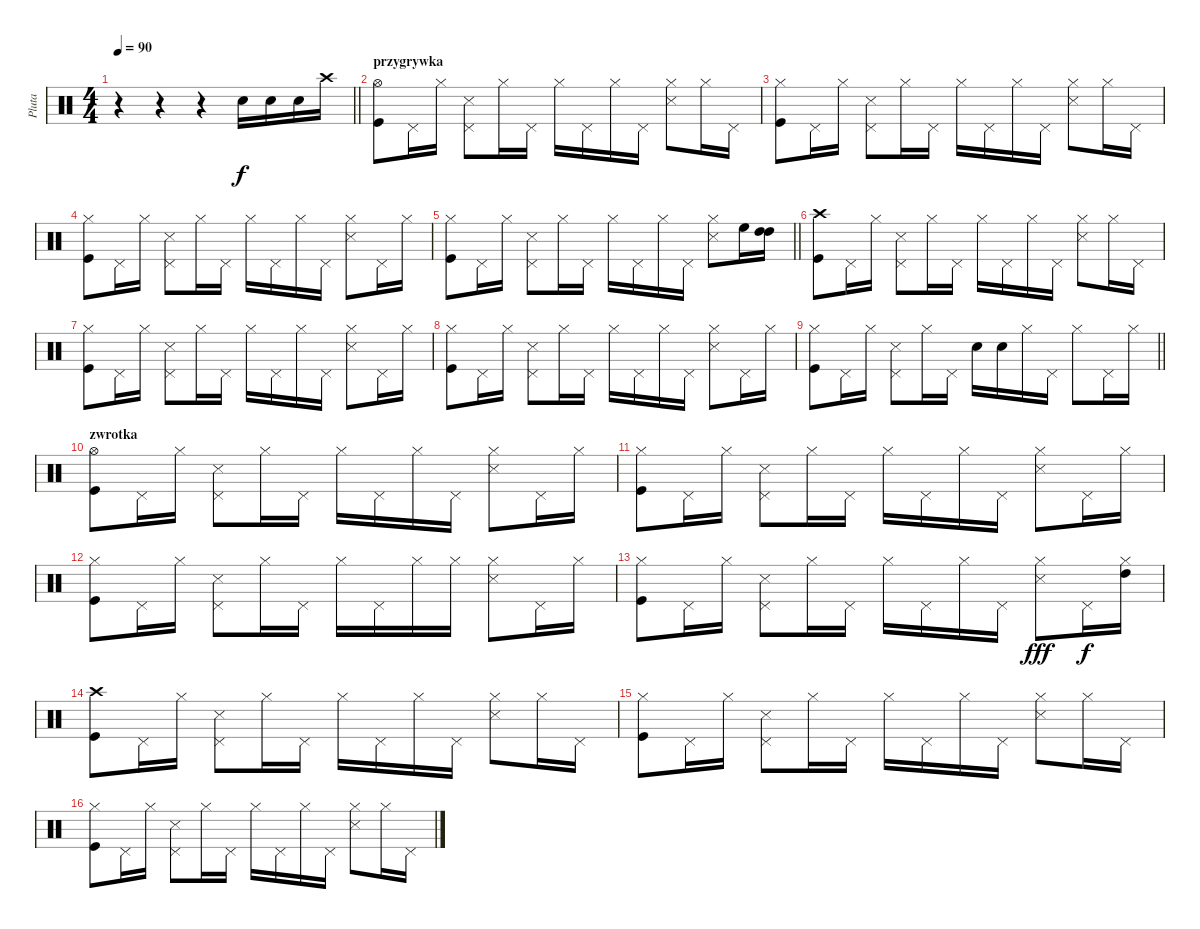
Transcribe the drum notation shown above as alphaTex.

\track ("Pluta" "Pluta") {instrument percussion}
\staff {score}
\articulation defaults
\ts (4 4)
\tempo 90
\clef neutral
\barLineRight lightlight
\ks c
r.4{dy f} r.4 r.4 "Snare (hit) 2".16 "Snare (hit) 2".16 "Snare (hit)".16 "Crash high (hit)".16 |
\section ("" "przygrywka")
("Hi-Hat (open)" "Kick (hit)").8 "Pedal Hi-Hat (hit)".16 "Hi-Hat (closed)".16 ("Pedal Hi-Hat (hit)" "Snare (side stick) 3").8 "Hi-Hat (closed)".16 "Pedal Hi-Hat (hit)".16 "Hi-Hat (closed)".16 "Pedal Hi-Hat (hit)".16 "Hi-Hat (closed)".16 "Pedal Hi-Hat (hit)".16 ("Hi-Hat (closed)" "Snare (side stick) 3").8 "Hi-Hat (closed)".16 "Pedal Hi-Hat (hit)".16 |
("Hi-Hat (closed)" "Kick (hit)").8 "Pedal Hi-Hat (hit)".16 "Hi-Hat (closed)".16 ("Pedal Hi-Hat (hit)" "Snare (side stick) 3").8 "Hi-Hat (closed)".16 "Pedal Hi-Hat (hit)".16 "Hi-Hat (closed)".16 "Pedal Hi-Hat (hit)".16 "Hi-Hat (closed)".16 "Pedal Hi-Hat (hit)".16 ("Hi-Hat (closed)" "Snare (side stick) 3").8 "Hi-Hat (closed)".16 "Pedal Hi-Hat (hit)".16 |
("Hi-Hat (closed)" "Kick (hit)").8 "Pedal Hi-Hat (hit)".16 "Hi-Hat (closed)".16 ("Pedal Hi-Hat (hit)" "Snare (side stick) 3").8 "Hi-Hat (closed)".16 "Pedal Hi-Hat (hit)".16 "Hi-Hat (closed)".16 "Pedal Hi-Hat (hit)".16 "Hi-Hat (closed)".16 "Pedal Hi-Hat (hit)".16 ("Hi-Hat (closed)" "Snare (side stick) 3").8 "Pedal Hi-Hat (hit)".16 "Hi-Hat (closed)".16 |
\barLineRight lightlight
("Hi-Hat (closed)" "Kick (hit)").8 "Pedal Hi-Hat (hit)".16 "Hi-Hat (closed)".16 ("Pedal Hi-Hat (hit)" "Snare (side stick) 3").8 "Hi-Hat (closed)".16 "Pedal Hi-Hat (hit)".16 "Hi-Hat (closed)".16 "Pedal Hi-Hat (hit)".16 "Hi-Hat (closed)".16 "Pedal Hi-Hat (hit)".16 ("Hi-Hat (closed)" "Snare (side stick) 3").8 "High Floor Tom (hit)".16 ("High Tom (hit)" "High Tom (hit)").16 |
("Crash high (hit)" "Kick (hit)").8 "Pedal Hi-Hat (hit)".16 "Hi-Hat (closed)".16 ("Pedal Hi-Hat (hit)" "Snare (side stick) 3").8 "Hi-Hat (closed)".16 "Pedal Hi-Hat (hit)".16 "Hi-Hat (closed)".16 "Pedal Hi-Hat (hit)".16 "Hi-Hat (closed)".16 "Pedal Hi-Hat (hit)".16 ("Hi-Hat (closed)" "Snare (side stick) 3").8 "Hi-Hat (closed)".16 "Pedal Hi-Hat (hit)".16 |
("Hi-Hat (closed)" "Kick (hit)").8 "Pedal Hi-Hat (hit)".16 "Hi-Hat (closed)".16 ("Pedal Hi-Hat (hit)" "Snare (side stick) 3").8 "Hi-Hat (closed)".16 "Pedal Hi-Hat (hit)".16 "Hi-Hat (closed)".16 "Pedal Hi-Hat (hit)".16 "Hi-Hat (closed)".16 "Pedal Hi-Hat (hit)".16 ("Hi-Hat (closed)" "Snare (side stick) 3").8 "Pedal Hi-Hat (hit)".16 "Hi-Hat (closed)".16 |
("Hi-Hat (closed)" "Kick (hit)").8 "Pedal Hi-Hat (hit)".16 "Hi-Hat (closed)".16 ("Pedal Hi-Hat (hit)" "Snare (side stick) 3").8 "Hi-Hat (closed)".16 "Pedal Hi-Hat (hit)".16 "Hi-Hat (closed)".16 "Pedal Hi-Hat (hit)".16 "Hi-Hat (closed)".16 "Pedal Hi-Hat (hit)".16 ("Hi-Hat (closed)" "Snare (side stick) 3").8 "Pedal Hi-Hat (hit)".16 "Hi-Hat (closed)".16 |
\barLineRight lightlight
("Hi-Hat (closed)" "Kick (hit)").8 "Pedal Hi-Hat (hit)".16 "Hi-Hat (closed)".16 ("Pedal Hi-Hat (hit)" "Snare (side stick) 3").8 "Hi-Hat (closed)".16 "Pedal Hi-Hat (hit)".16 "Snare (hit) 2".16 "Snare (hit) 2".16 "Hi-Hat (closed)".16 "Pedal Hi-Hat (hit)".16 "Hi-Hat (closed)".8 "Pedal Hi-Hat (hit)".16 "Hi-Hat (closed)".16 |
\section ("" "zwrotka")
("Hi-Hat (open)" "Kick (hit)").8 "Pedal Hi-Hat (hit)".16 "Hi-Hat (closed)".16 ("Pedal Hi-Hat (hit)" "Snare (side stick) 3").8 "Hi-Hat (closed)".16 "Pedal Hi-Hat (hit)".16 "Hi-Hat (closed)".16 "Pedal Hi-Hat (hit)".16 "Hi-Hat (closed)".16 "Pedal Hi-Hat (hit)".16 ("Hi-Hat (closed)" "Snare (side stick) 3").8 "Pedal Hi-Hat (hit)".16 "Hi-Hat (closed)".16 |
("Hi-Hat (closed)" "Kick (hit)").8 "Pedal Hi-Hat (hit)".16 "Hi-Hat (closed)".16 ("Pedal Hi-Hat (hit)" "Snare (side stick) 3").8 "Hi-Hat (closed)".16 "Pedal Hi-Hat (hit)".16 "Hi-Hat (closed)".16 "Pedal Hi-Hat (hit)".16 "Hi-Hat (closed)".16 "Pedal Hi-Hat (hit)".16 ("Hi-Hat (closed)" "Snare (side stick) 3").8 "Pedal Hi-Hat (hit)".16 "Hi-Hat (closed)".16 |
("Hi-Hat (closed)" "Kick (hit)").8 "Pedal Hi-Hat (hit)".16 "Hi-Hat (closed)".16 ("Pedal Hi-Hat (hit)" "Snare (side stick) 3").8 "Hi-Hat (closed)".16 "Pedal Hi-Hat (hit)".16 "Hi-Hat (closed)".16 "Pedal Hi-Hat (hit)".16 "Hi-Hat (closed)".16 "Hi-Hat (closed)".16 ("Hi-Hat (closed)" "Snare (side stick) 3").8 "Pedal Hi-Hat (hit)".16 "Hi-Hat (closed)".16 |
("Hi-Hat (closed)" "Kick (hit)").8 "Pedal Hi-Hat (hit)".16 "Hi-Hat (closed)".16 ("Pedal Hi-Hat (hit)" "Snare (side stick) 3").8 "Hi-Hat (closed)".16 "Pedal Hi-Hat (hit)".16 "Hi-Hat (closed)".16 "Pedal Hi-Hat (hit)".16 "Hi-Hat (closed)".16 "Pedal Hi-Hat (hit)".16 ("Hi-Hat (closed)" "Snare (side stick) 3").8{dy fff} "Pedal Hi-Hat (hit)".16{dy f} ("Hi-Hat (closed)" "High Tom (hit)").16 |
("Crash high (hit)" "Kick (hit)").8 "Pedal Hi-Hat (hit)".16 "Hi-Hat (closed)".16 ("Pedal Hi-Hat (hit)" "Snare (side stick) 3").8 "Hi-Hat (closed)".16 "Pedal Hi-Hat (hit)".16 "Hi-Hat (closed)".16 "Pedal Hi-Hat (hit)".16 "Hi-Hat (closed)".16 "Pedal Hi-Hat (hit)".16 ("Hi-Hat (closed)" "Snare (side stick) 3").8 "Hi-Hat (closed)".16 "Pedal Hi-Hat (hit)".16 |
("Hi-Hat (closed)" "Kick (hit)").8 "Pedal Hi-Hat (hit)".16 "Hi-Hat (closed)".16 ("Pedal Hi-Hat (hit)" "Snare (side stick) 3").8 "Hi-Hat (closed)".16 "Pedal Hi-Hat (hit)".16 "Hi-Hat (closed)".16 "Pedal Hi-Hat (hit)".16 "Hi-Hat (closed)".16 "Pedal Hi-Hat (hit)".16 ("Hi-Hat (closed)" "Snare (side stick) 3").8 "Hi-Hat (closed)".16 "Pedal Hi-Hat (hit)".16 |
("Hi-Hat (closed)" "Kick (hit)").8 "Pedal Hi-Hat (hit)".16 "Hi-Hat (closed)".16 ("Pedal Hi-Hat (hit)" "Snare (side stick) 3").8 "Hi-Hat (closed)".16 "Pedal Hi-Hat (hit)".16 "Hi-Hat (closed)".16 "Pedal Hi-Hat (hit)".16 "Hi-Hat (closed)".16 "Pedal Hi-Hat (hit)".16 ("Hi-Hat (closed)" "Snare (side stick) 3").8 "Hi-Hat (closed)".16 "Pedal Hi-Hat (hit)".16
